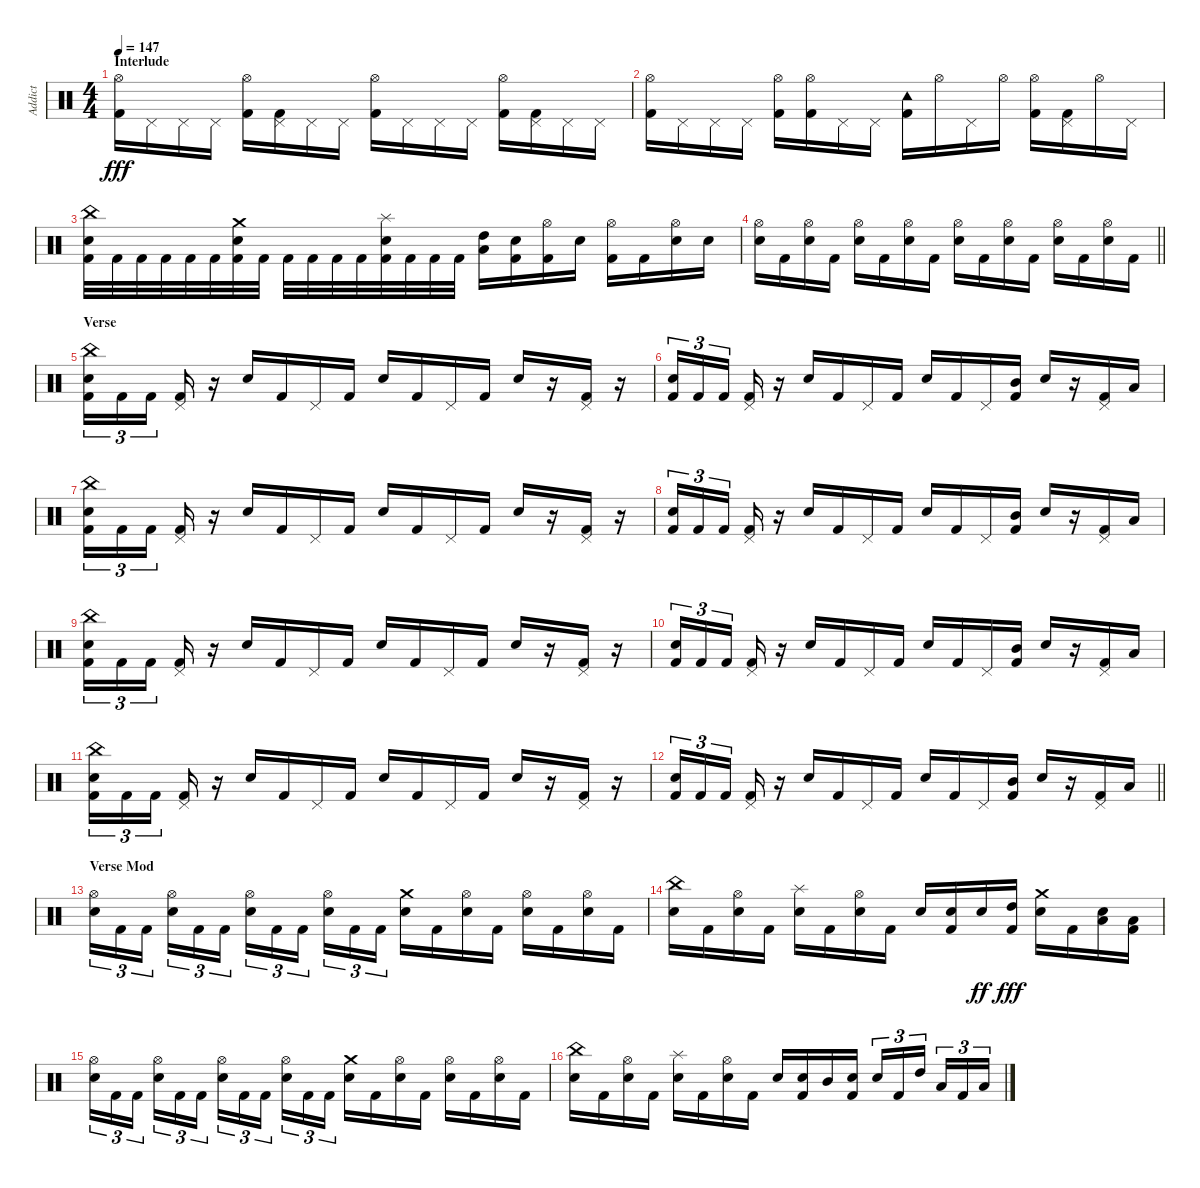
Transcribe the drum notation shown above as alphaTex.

\track ("Addict" "Addict") {instrument percussion}
\staff {score}
\articulation defaults
\ts (4 4)
\section ("" "Interlude")
\tempo 147
\clef neutral
\ks c
("Kick (hit) 2" "Hi-Hat (open)").16{dy fff} "Pedal Hi-Hat (hit)".16 "Pedal Hi-Hat (hit)".16 "Pedal Hi-Hat (hit)".16 ("Kick (hit) 2" "Hi-Hat (open)").16 ("Kick (hit) 2" "Pedal Hi-Hat (hit)").16 "Pedal Hi-Hat (hit)".16 "Pedal Hi-Hat (hit)".16 ("Kick (hit) 2" "Hi-Hat (open)").16 "Pedal Hi-Hat (hit)".16 "Pedal Hi-Hat (hit)".16 "Pedal Hi-Hat (hit)".16 ("Kick (hit) 2" "Hi-Hat (open)").16 ("Kick (hit) 2" "Pedal Hi-Hat (hit)").16 "Pedal Hi-Hat (hit)".16 "Pedal Hi-Hat (hit)".16 |
("Kick (hit) 2" "Hi-Hat (open)").16 "Pedal Hi-Hat (hit)".16 "Pedal Hi-Hat (hit)".16 "Pedal Hi-Hat (hit)".16 ("Kick (hit) 2" "Hi-Hat (open)").16 ("Kick (hit) 2" "Hi-Hat (open)").16 "Pedal Hi-Hat (hit)".16 "Pedal Hi-Hat (hit)".16 ("Kick (hit) 2" "Tambourine (hit)").16 "Hi-Hat (open)".16 "Pedal Hi-Hat (hit)".16 "Hi-Hat (open)".16 ("Kick (hit) 2" "Hi-Hat (open)").16 ("Kick (hit) 2" "Pedal Hi-Hat (hit)").16 "Hi-Hat (open)".16 "Pedal Hi-Hat (hit)".16 |
("Kick (hit) 2" "Snare (hit) 2" "China (hit)").32 "Kick (hit) 2".32 "Kick (hit) 2".32 "Kick (hit) 2".32 "Kick (hit) 2".32 "Kick (hit) 2".32 ("Kick (hit) 2" "Snare (hit) 2" "Crash medium (hit)").32 "Kick (hit) 2".32 "Kick (hit) 2".32 "Kick (hit) 2".32 "Kick (hit) 2".32 "Kick (hit) 2".32 ("Kick (hit) 2" "Snare (hit) 2" "Splash (hit)").32 "Kick (hit) 2".32 "Kick (hit) 2".32 "Kick (hit) 2".32 ("High Tom (hit)" "Low Tom (hit)").16 ("Kick (hit) 2" "Snare (hit) 2").16 ("Kick (hit) 2" "Hi-Hat (open)").16 "Snare (hit) 2".16 ("Kick (hit) 2" "Hi-Hat (open)").16 "Kick (hit) 2".16 ("Snare (hit) 2" "Hi-Hat (open)").16 "Snare (hit) 2".16 |
\barLineRight lightlight
("Snare (hit) 2" "Hi-Hat (open)").16 "Kick (hit) 2".16 ("Snare (hit) 2" "Hi-Hat (open)").16 "Kick (hit) 2".16 ("Snare (hit) 2" "Hi-Hat (open)").16 "Kick (hit) 2".16 ("Snare (hit) 2" "Hi-Hat (open)").16 "Kick (hit) 2".16 ("Snare (hit) 2" "Hi-Hat (open)").16 "Kick (hit) 2".16 ("Snare (hit) 2" "Hi-Hat (open)").16 "Kick (hit) 2".16 ("Snare (hit) 2" "Hi-Hat (open)").16 "Kick (hit) 2".16 ("Snare (hit) 2" "Hi-Hat (open)").16 "Kick (hit) 2".16 |
\section ("" "Verse")
("Kick (hit) 2" "Snare (hit) 2" "China (hit)").16{tu (3 2)} "Kick (hit) 2".16{tu (3 2)} "Kick (hit) 2".16{tu (3 2) beam splitsecondary} ("Kick (hit) 2" "Pedal Hi-Hat (hit)").16 r.16 "Snare (hit) 2".16 "Kick (hit) 2".16 "Pedal Hi-Hat (hit)".16 "Kick (hit) 2".16 "Snare (hit) 2".16 "Kick (hit) 2".16 "Pedal Hi-Hat (hit)".16 "Kick (hit) 2".16 "Snare (hit) 2".16 r.16 ("Kick (hit) 2" "Pedal Hi-Hat (hit)").16 r.16 |
("Kick (hit) 2" "Snare (hit) 2").16{tu (3 2)} "Kick (hit) 2".16{tu (3 2)} "Kick (hit) 2".16{tu (3 2) beam splitsecondary} ("Kick (hit) 2" "Pedal Hi-Hat (hit)").16 r.16 "Snare (hit) 2".16 "Kick (hit) 2".16 "Pedal Hi-Hat (hit)".16 "Kick (hit) 2".16 "Snare (hit) 2".16 "Kick (hit) 2".16 "Pedal Hi-Hat (hit)".16 ("Kick (hit) 2" "Mid Tom (hit)").16 "Snare (hit) 2".16 r.16 ("Kick (hit) 2" "Pedal Hi-Hat (hit)").16 "Low Tom (hit)".16 |
("Kick (hit) 2" "Snare (hit) 2" "China (hit)").16{tu (3 2)} "Kick (hit) 2".16{tu (3 2)} "Kick (hit) 2".16{tu (3 2) beam splitsecondary} ("Kick (hit) 2" "Pedal Hi-Hat (hit)").16 r.16 "Snare (hit) 2".16 "Kick (hit) 2".16 "Pedal Hi-Hat (hit)".16 "Kick (hit) 2".16 "Snare (hit) 2".16 "Kick (hit) 2".16 "Pedal Hi-Hat (hit)".16 "Kick (hit) 2".16 "Snare (hit) 2".16 r.16 ("Kick (hit) 2" "Pedal Hi-Hat (hit)").16 r.16 |
("Kick (hit) 2" "Snare (hit) 2").16{tu (3 2)} "Kick (hit) 2".16{tu (3 2)} "Kick (hit) 2".16{tu (3 2) beam splitsecondary} ("Kick (hit) 2" "Pedal Hi-Hat (hit)").16 r.16 "Snare (hit) 2".16 "Kick (hit) 2".16 "Pedal Hi-Hat (hit)".16 "Kick (hit) 2".16 "Snare (hit) 2".16 "Kick (hit) 2".16 "Pedal Hi-Hat (hit)".16 ("Kick (hit) 2" "Mid Tom (hit)").16 "Snare (hit) 2".16 r.16 ("Kick (hit) 2" "Pedal Hi-Hat (hit)").16 "Low Tom (hit)".16 |
("Kick (hit) 2" "Snare (hit) 2" "China (hit)").16{tu (3 2)} "Kick (hit) 2".16{tu (3 2)} "Kick (hit) 2".16{tu (3 2) beam splitsecondary} ("Kick (hit) 2" "Pedal Hi-Hat (hit)").16 r.16 "Snare (hit) 2".16 "Kick (hit) 2".16 "Pedal Hi-Hat (hit)".16 "Kick (hit) 2".16 "Snare (hit) 2".16 "Kick (hit) 2".16 "Pedal Hi-Hat (hit)".16 "Kick (hit) 2".16 "Snare (hit) 2".16 r.16 ("Kick (hit) 2" "Pedal Hi-Hat (hit)").16 r.16 |
("Kick (hit) 2" "Snare (hit) 2").16{tu (3 2)} "Kick (hit) 2".16{tu (3 2)} "Kick (hit) 2".16{tu (3 2) beam splitsecondary} ("Kick (hit) 2" "Pedal Hi-Hat (hit)").16 r.16 "Snare (hit) 2".16 "Kick (hit) 2".16 "Pedal Hi-Hat (hit)".16 "Kick (hit) 2".16 "Snare (hit) 2".16 "Kick (hit) 2".16 "Pedal Hi-Hat (hit)".16 ("Kick (hit) 2" "Mid Tom (hit)").16 "Snare (hit) 2".16 r.16 ("Kick (hit) 2" "Pedal Hi-Hat (hit)").16 "Low Tom (hit)".16 |
("Kick (hit) 2" "Snare (hit) 2" "China (hit)").16{tu (3 2)} "Kick (hit) 2".16{tu (3 2)} "Kick (hit) 2".16{tu (3 2) beam splitsecondary} ("Kick (hit) 2" "Pedal Hi-Hat (hit)").16 r.16 "Snare (hit) 2".16 "Kick (hit) 2".16 "Pedal Hi-Hat (hit)".16 "Kick (hit) 2".16 "Snare (hit) 2".16 "Kick (hit) 2".16 "Pedal Hi-Hat (hit)".16 "Kick (hit) 2".16 "Snare (hit) 2".16 r.16 ("Kick (hit) 2" "Pedal Hi-Hat (hit)").16 r.16 |
\barLineRight lightlight
("Kick (hit) 2" "Snare (hit) 2").16{tu (3 2)} "Kick (hit) 2".16{tu (3 2)} "Kick (hit) 2".16{tu (3 2) beam splitsecondary} ("Kick (hit) 2" "Pedal Hi-Hat (hit)").16 r.16 "Snare (hit) 2".16 "Kick (hit) 2".16 "Pedal Hi-Hat (hit)".16 "Kick (hit) 2".16 "Snare (hit) 2".16 "Kick (hit) 2".16 "Pedal Hi-Hat (hit)".16 ("Kick (hit) 2" "Mid Tom (hit)").16 "Snare (hit) 2".16 r.16 ("Kick (hit) 2" "Pedal Hi-Hat (hit)").16 "Low Tom (hit)".16 |
\section ("" "Verse Mod")
("Snare (hit) 2" "Hi-Hat (open)").16{tu (3 2)} "Kick (hit) 2".16{tu (3 2)} "Kick (hit) 2".16{tu (3 2) beam splitsecondary} ("Snare (hit) 2" "Hi-Hat (open)").16{tu (3 2)} "Kick (hit) 2".16{tu (3 2)} "Kick (hit) 2".16{tu (3 2)} ("Snare (hit) 2" "Hi-Hat (open)").16{tu (3 2)} "Kick (hit) 2".16{tu (3 2)} "Kick (hit) 2".16{tu (3 2) beam splitsecondary} ("Snare (hit) 2" "Hi-Hat (open)").16{tu (3 2)} "Kick (hit) 2".16{tu (3 2)} "Kick (hit) 2".16{tu (3 2)} ("Snare (hit) 2" "Crash medium (hit)").16 "Kick (hit) 2".16 ("Snare (hit) 2" "Hi-Hat (open)").16 "Kick (hit) 2".16 ("Snare (hit) 2" "Hi-Hat (open)").16 "Kick (hit) 2".16 ("Snare (hit) 2" "Hi-Hat (open)").16 "Kick (hit) 2".16 |
("Snare (hit) 2" "China (hit)").16 "Kick (hit) 2".16 ("Snare (hit) 2" "Hi-Hat (open)").16 "Kick (hit) 2".16 ("Snare (hit) 2" "Splash (hit)").16 "Kick (hit) 2".16 ("Snare (hit) 2" "Hi-Hat (open)").16 "Kick (hit) 2".16 "Snare (hit) 2".16 ("Kick (hit) 2" "Snare (hit) 2").16 "Snare (hit) 2".16{dy ff} ("Kick (hit) 2" "High Tom (hit)").16{dy fff} ("Snare (hit) 2" "Crash medium (hit)").16 "Kick (hit) 2".16 ("Snare (hit) 2" "Low Tom (hit)").16 ("Kick (hit) 2" "Low Floor Tom (hit)").16 |
("Snare (hit) 2" "Hi-Hat (open)").16{tu (3 2)} "Kick (hit) 2".16{tu (3 2)} "Kick (hit) 2".16{tu (3 2) beam splitsecondary} ("Snare (hit) 2" "Hi-Hat (open)").16{tu (3 2)} "Kick (hit) 2".16{tu (3 2)} "Kick (hit) 2".16{tu (3 2)} ("Snare (hit) 2" "Hi-Hat (open)").16{tu (3 2)} "Kick (hit) 2".16{tu (3 2)} "Kick (hit) 2".16{tu (3 2) beam splitsecondary} ("Snare (hit) 2" "Hi-Hat (open)").16{tu (3 2)} "Kick (hit) 2".16{tu (3 2)} "Kick (hit) 2".16{tu (3 2)} ("Snare (hit) 2" "Crash medium (hit)").16 "Kick (hit) 2".16 ("Snare (hit) 2" "Hi-Hat (open)").16 "Kick (hit) 2".16 ("Snare (hit) 2" "Hi-Hat (open)").16 "Kick (hit) 2".16 ("Snare (hit) 2" "Hi-Hat (open)").16 "Kick (hit) 2".16 |
("Snare (hit) 2" "China (hit)").16 "Kick (hit) 2".16 ("Snare (hit) 2" "Hi-Hat (open)").16 "Kick (hit) 2".16 ("Snare (hit) 2" "Splash (hit)").16 "Kick (hit) 2".16 ("Snare (hit) 2" "Hi-Hat (open)").16 "Kick (hit) 2".16 "Snare (hit) 2".16 ("Kick (hit) 2" "Snare (hit) 2").16 "Mid Tom (hit)".16 ("Kick (hit) 2" "Snare (hit) 2").16 "Snare (hit) 2".16{tu (3 2)} "Kick (hit) 2".16{tu (3 2)} "High Tom (hit)".16{tu (3 2) beam splitsecondary} "Low Floor Tom (hit)".16{tu (3 2)} "Kick (hit) 2".16{tu (3 2)} "Low Tom (hit)".16{tu (3 2)}
